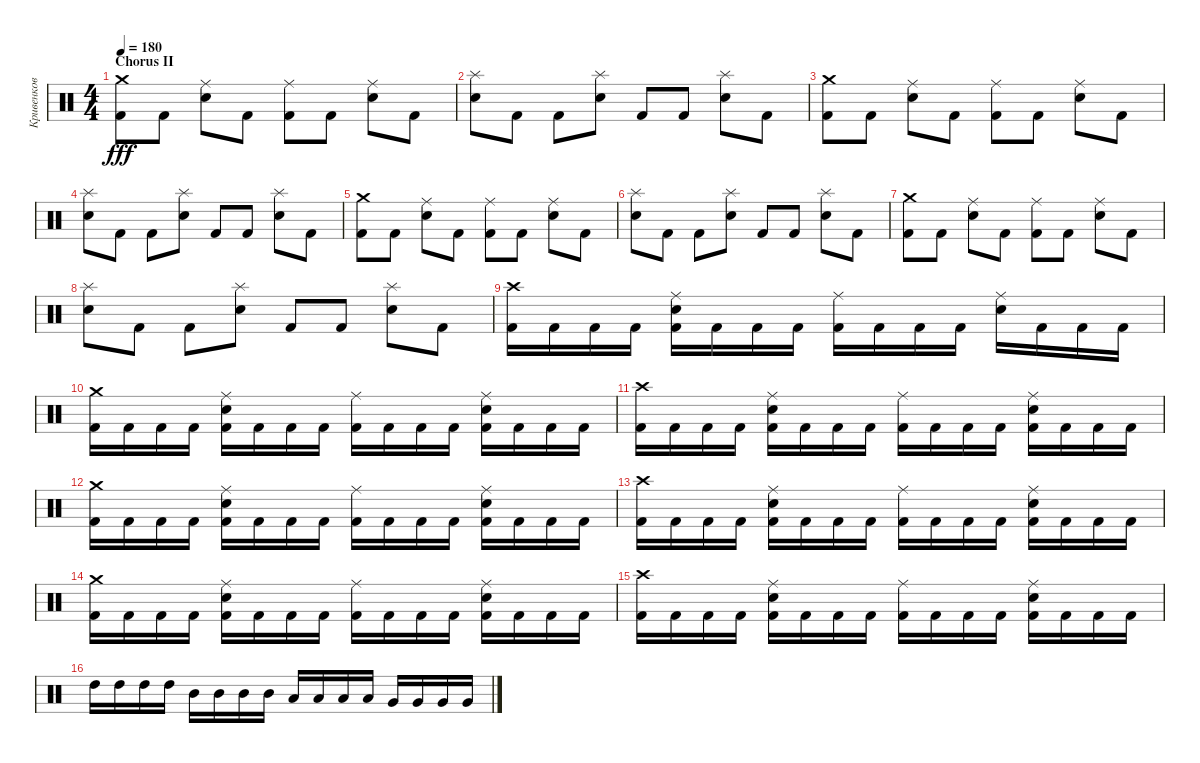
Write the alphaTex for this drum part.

\track ("Кривенков" "Кривенков") {instrument percussion}
\staff {score}
\articulation defaults
\ts (4 4)
\section ("" "Chorus II")
\tempo 180
\clef neutral
\ks c
("Crash medium (hit)" "Kick (hit) 2").8{dy fff} "Kick (hit) 2".8 ("Snare (hit) 2" "Ride (middle)").8 "Kick (hit) 2".8 ("Kick (hit) 2" "Ride (middle)").8 "Kick (hit) 2".8 ("Snare (hit) 2" "Ride (middle)").8 "Kick (hit) 2".8 |
("Snare (hit) 2" "Splash (hit)").8 "Kick (hit) 2".8 "Kick (hit) 2".8 ("Snare (hit) 2" "Splash (hit)").8 "Kick (hit) 2".8 "Kick (hit) 2".8 ("Snare (hit) 2" "Splash (hit)").8 "Kick (hit) 2".8 |
("Kick (hit) 2" "Crash medium (hit)").8 "Kick (hit) 2".8 ("Ride (middle)" "Snare (hit) 2").8 "Kick (hit) 2".8 ("Ride (middle)" "Kick (hit) 2").8 "Kick (hit) 2".8 ("Ride (middle)" "Snare (hit) 2").8 "Kick (hit) 2".8 |
("Splash (hit)" "Snare (hit) 2").8 "Kick (hit) 2".8 "Kick (hit) 2".8 ("Splash (hit)" "Snare (hit) 2").8 "Kick (hit) 2".8 "Kick (hit) 2".8 ("Snare (hit) 2" "Splash (hit)").8 "Kick (hit) 2".8 |
("Kick (hit) 2" "Crash medium (hit)").8 "Kick (hit) 2".8 ("Ride (middle)" "Snare (hit) 2").8 "Kick (hit) 2".8 ("Kick (hit) 2" "Ride (middle)").8 "Kick (hit) 2".8 ("Snare (hit) 2" "Ride (middle)").8 "Kick (hit) 2".8 |
("Splash (hit)" "Snare (hit) 2").8 "Kick (hit) 2".8 "Kick (hit) 2".8 ("Splash (hit)" "Snare (hit) 2").8 "Kick (hit) 2".8 "Kick (hit) 2".8 ("Snare (hit) 2" "Splash (hit)").8 "Kick (hit) 2".8 |
("Crash medium (hit)" "Kick (hit) 2").8 "Kick (hit) 2".8 ("Ride (middle)" "Snare (hit) 2").8 "Kick (hit) 2".8 ("Ride (middle)" "Kick (hit) 2").8 "Kick (hit) 2".8 ("Snare (hit) 2" "Ride (middle)").8 "Kick (hit) 2".8 |
("Splash (hit)" "Snare (hit) 2").8 "Kick (hit) 2".8 "Kick (hit) 2".8 ("Splash (hit)" "Snare (hit) 2").8 "Kick (hit) 2".8 "Kick (hit) 2".8 ("Splash (hit)" "Snare (hit) 2").8 "Kick (hit) 2".8 |
("Crash high (hit)" "Kick (hit) 2").16 "Kick (hit) 2".16 "Kick (hit) 2".16 "Kick (hit) 2".16 ("Kick (hit) 2" "Ride (middle)" "Snare (hit) 2").16 "Kick (hit) 2".16 "Kick (hit) 2".16 "Kick (hit) 2".16 ("Kick (hit) 2" "Ride (middle)").16 "Kick (hit) 2".16 "Kick (hit) 2".16 "Kick (hit) 2".16 ("Snare (hit) 2" "Ride (middle)").16 "Kick (hit) 2".16 "Kick (hit) 2".16 "Kick (hit) 2".16 |
("Kick (hit) 2" "Crash medium (hit)").16 "Kick (hit) 2".16 "Kick (hit) 2".16 "Kick (hit) 2".16 ("Snare (hit) 2" "Kick (hit) 2" "Ride (middle)").16 "Kick (hit) 2".16 "Kick (hit) 2".16 "Kick (hit) 2".16 ("Ride (middle)" "Kick (hit) 2").16 "Kick (hit) 2".16 "Kick (hit) 2".16 "Kick (hit) 2".16 ("Snare (hit) 2" "Ride (middle)" "Kick (hit) 2").16 "Kick (hit) 2".16 "Kick (hit) 2".16 "Kick (hit) 2".16 |
("Kick (hit) 2" "Crash high (hit)").16 "Kick (hit) 2".16 "Kick (hit) 2".16 "Kick (hit) 2".16 ("Ride (middle)" "Kick (hit) 2" "Snare (hit) 2").16 "Kick (hit) 2".16 "Kick (hit) 2".16 "Kick (hit) 2".16 ("Kick (hit) 2" "Ride (middle)").16 "Kick (hit) 2".16 "Kick (hit) 2".16 "Kick (hit) 2".16 ("Snare (hit) 2" "Kick (hit) 2" "Ride (middle)").16 "Kick (hit) 2".16 "Kick (hit) 2".16 "Kick (hit) 2".16 |
("Kick (hit) 2" "Crash medium (hit)").16 "Kick (hit) 2".16 "Kick (hit) 2".16 "Kick (hit) 2".16 ("Ride (middle)" "Kick (hit) 2" "Snare (hit) 2").16 "Kick (hit) 2".16 "Kick (hit) 2".16 "Kick (hit) 2".16 ("Kick (hit) 2" "Ride (middle)").16 "Kick (hit) 2".16 "Kick (hit) 2".16 "Kick (hit) 2".16 ("Snare (hit) 2" "Ride (middle)" "Kick (hit) 2").16 "Kick (hit) 2".16 "Kick (hit) 2".16 "Kick (hit) 2".16 |
("Crash high (hit)" "Kick (hit) 2").16 "Kick (hit) 2".16 "Kick (hit) 2".16 "Kick (hit) 2".16 ("Snare (hit) 2" "Kick (hit) 2" "Ride (middle)").16 "Kick (hit) 2".16 "Kick (hit) 2".16 "Kick (hit) 2".16 ("Kick (hit) 2" "Ride (middle)").16 "Kick (hit) 2".16 "Kick (hit) 2".16 "Kick (hit) 2".16 ("Snare (hit) 2" "Ride (middle)" "Kick (hit) 2").16 "Kick (hit) 2".16 "Kick (hit) 2".16 "Kick (hit) 2".16 |
("Kick (hit) 2" "Crash medium (hit)").16 "Kick (hit) 2".16 "Kick (hit) 2".16 "Kick (hit) 2".16 ("Kick (hit) 2" "Ride (middle)" "Snare (hit) 2").16 "Kick (hit) 2".16 "Kick (hit) 2".16 "Kick (hit) 2".16 ("Ride (middle)" "Kick (hit) 2").16 "Kick (hit) 2".16 "Kick (hit) 2".16 "Kick (hit) 2".16 ("Ride (middle)" "Kick (hit) 2" "Snare (hit) 2").16 "Kick (hit) 2".16 "Kick (hit) 2".16 "Kick (hit) 2".16 |
("Kick (hit) 2" "Crash high (hit)").16 "Kick (hit) 2".16 "Kick (hit) 2".16 "Kick (hit) 2".16 ("Ride (middle)" "Snare (hit) 2" "Kick (hit) 2").16 "Kick (hit) 2".16 "Kick (hit) 2".16 "Kick (hit) 2".16 ("Kick (hit) 2" "Ride (middle)").16 "Kick (hit) 2".16 "Kick (hit) 2".16 "Kick (hit) 2".16 ("Ride (middle)" "Kick (hit) 2" "Snare (hit) 2").16 "Kick (hit) 2".16 "Kick (hit) 2".16 "Kick (hit) 2".16 |
"High Tom (hit)".16 "High Tom (hit)".16 "High Tom (hit)".16 "High Tom (hit)".16 "Mid Tom (hit)".16 "Mid Tom (hit)".16 "Mid Tom (hit)".16 "Mid Tom (hit)".16 "Low Tom (hit)".16 "Low Tom (hit)".16 "Low Tom (hit)".16 "Low Tom (hit)".16 "Very Low Tom (hit)".16 "Very Low Tom (hit)".16 "Very Low Tom (hit)".16 "Very Low Tom (hit)".16
